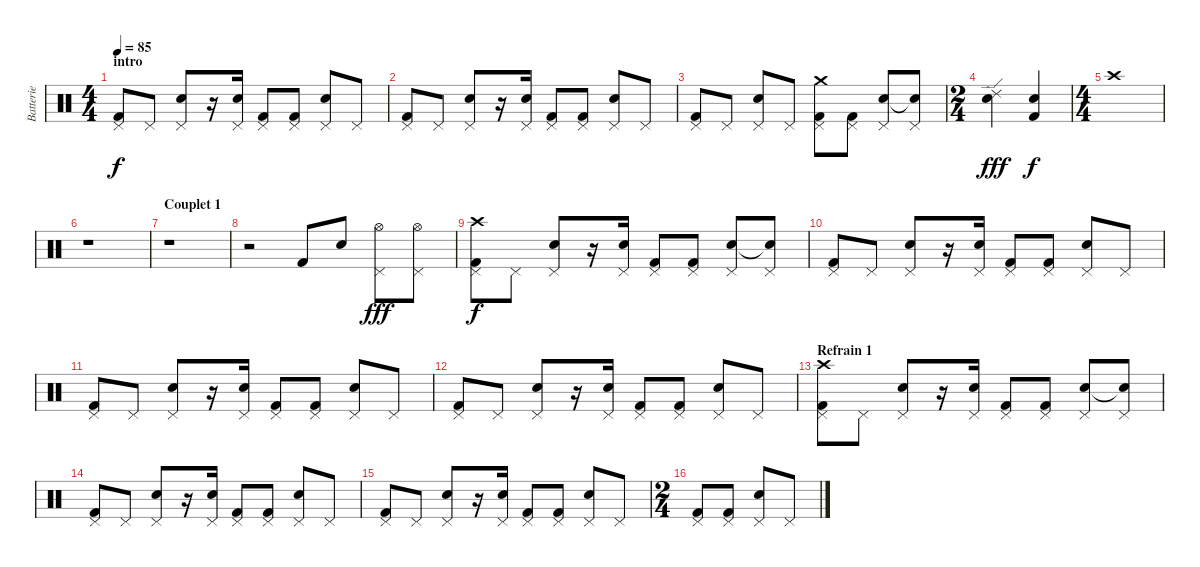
\track ("Batterie" "Batterie") {instrument percussion}
\staff {score}
\articulation defaults
\ts (4 4)
\section ("" "intro")
\tempo 85
\clef neutral
\ks c
("Pedal Hi-Hat (hit)" "Kick (hit) 2").8{dy f} "Pedal Hi-Hat (hit)".8 ("Pedal Hi-Hat (hit)" "Electric Snare (hit)").8 r.16 ("Pedal Hi-Hat (hit)" "Electric Snare (hit)").16 ("Pedal Hi-Hat (hit)" "Kick (hit) 2").8 ("Pedal Hi-Hat (hit)" "Kick (hit) 2").8 ("Pedal Hi-Hat (hit)" "Electric Snare (hit)").8 "Pedal Hi-Hat (hit)".8 |
("Pedal Hi-Hat (hit)" "Kick (hit) 2").8 "Pedal Hi-Hat (hit)".8 ("Pedal Hi-Hat (hit)" "Electric Snare (hit)").8 r.16 ("Pedal Hi-Hat (hit)" "Electric Snare (hit)").16 ("Pedal Hi-Hat (hit)" "Kick (hit) 2").8 ("Pedal Hi-Hat (hit)" "Kick (hit) 2").8 ("Pedal Hi-Hat (hit)" "Electric Snare (hit)").8 "Pedal Hi-Hat (hit)".8 |
("Pedal Hi-Hat (hit)" "Kick (hit) 2").8 "Pedal Hi-Hat (hit)".8 ("Pedal Hi-Hat (hit)" "Electric Snare (hit)").8 "Pedal Hi-Hat (hit)".8 ("Pedal Hi-Hat (hit)" "Crash medium (hit)" "Kick (hit) 2").8 ("Pedal Hi-Hat (hit)" "Kick (hit) 2").8 ("Pedal Hi-Hat (hit)" "Electric Snare (hit)").8 ("Pedal Hi-Hat (hit)" "Snare (hit)"{t}).8 |
\ts (2 4)
("Ride (edge) 2" "Electric Snare (hit)").4{dy fff} ("Kick (hit) 2" "Electric Snare (hit)").4{dy f} |
\ts (4 4)
"Crash high (hit)".1 |
r.1 |
\section ("" "Couplet 1")
r.1 |
r.2 "Kick (hit) 2".8 "Electric Snare (hit)".8 ("Hi-Hat (open)" "Pedal Hi-Hat (hit)").8{dy fff} ("Hi-Hat (open)" "Pedal Hi-Hat (hit)").8 |
("Pedal Hi-Hat (hit)" "Crash high (hit)" "Kick (hit) 2").8{dy f} "Pedal Hi-Hat (hit)".8 ("Pedal Hi-Hat (hit)" "Electric Snare (hit)").8 r.16 ("Pedal Hi-Hat (hit)" "Electric Snare (hit)").16 ("Pedal Hi-Hat (hit)" "Kick (hit) 2").8 ("Pedal Hi-Hat (hit)" "Kick (hit) 2").8 ("Pedal Hi-Hat (hit)" "Electric Snare (hit)").8 ("Pedal Hi-Hat (hit)" "Snare (hit)"{t}).8 |
("Pedal Hi-Hat (hit)" "Kick (hit) 2").8 "Pedal Hi-Hat (hit)".8 ("Pedal Hi-Hat (hit)" "Electric Snare (hit)").8 r.16 ("Pedal Hi-Hat (hit)" "Electric Snare (hit)").16 ("Pedal Hi-Hat (hit)" "Kick (hit) 2").8 ("Pedal Hi-Hat (hit)" "Kick (hit) 2").8 ("Pedal Hi-Hat (hit)" "Electric Snare (hit)").8 "Pedal Hi-Hat (hit)".8 |
("Pedal Hi-Hat (hit)" "Kick (hit) 2").8 "Pedal Hi-Hat (hit)".8 ("Pedal Hi-Hat (hit)" "Electric Snare (hit)").8 r.16 ("Pedal Hi-Hat (hit)" "Electric Snare (hit)").16 ("Pedal Hi-Hat (hit)" "Kick (hit) 2").8 ("Pedal Hi-Hat (hit)" "Kick (hit) 2").8 ("Pedal Hi-Hat (hit)" "Electric Snare (hit)").8 "Pedal Hi-Hat (hit)".8 |
("Pedal Hi-Hat (hit)" "Kick (hit) 2").8 "Pedal Hi-Hat (hit)".8 ("Pedal Hi-Hat (hit)" "Electric Snare (hit)").8 r.16 ("Pedal Hi-Hat (hit)" "Electric Snare (hit)").16 ("Pedal Hi-Hat (hit)" "Kick (hit) 2").8 ("Pedal Hi-Hat (hit)" "Kick (hit) 2").8 ("Pedal Hi-Hat (hit)" "Electric Snare (hit)").8 "Pedal Hi-Hat (hit)".8 |
\section ("" "Refrain 1")
("Pedal Hi-Hat (hit)" "Crash high (hit)" "Kick (hit) 2").8 "Pedal Hi-Hat (hit)".8 ("Pedal Hi-Hat (hit)" "Electric Snare (hit)").8 r.16 ("Pedal Hi-Hat (hit)" "Electric Snare (hit)").16 ("Pedal Hi-Hat (hit)" "Kick (hit) 2").8 ("Pedal Hi-Hat (hit)" "Kick (hit) 2").8 ("Pedal Hi-Hat (hit)" "Electric Snare (hit)").8 ("Pedal Hi-Hat (hit)" "Snare (hit)"{t}).8 |
("Pedal Hi-Hat (hit)" "Kick (hit) 2").8 "Pedal Hi-Hat (hit)".8 ("Pedal Hi-Hat (hit)" "Electric Snare (hit)").8 r.16 ("Pedal Hi-Hat (hit)" "Electric Snare (hit)").16 ("Pedal Hi-Hat (hit)" "Kick (hit) 2").8 ("Pedal Hi-Hat (hit)" "Kick (hit) 2").8 ("Pedal Hi-Hat (hit)" "Electric Snare (hit)").8 "Pedal Hi-Hat (hit)".8 |
("Pedal Hi-Hat (hit)" "Kick (hit) 2").8 "Pedal Hi-Hat (hit)".8 ("Pedal Hi-Hat (hit)" "Electric Snare (hit)").8 r.16 ("Pedal Hi-Hat (hit)" "Electric Snare (hit)").16 ("Pedal Hi-Hat (hit)" "Kick (hit) 2").8 ("Pedal Hi-Hat (hit)" "Kick (hit) 2").8 ("Pedal Hi-Hat (hit)" "Electric Snare (hit)").8 "Pedal Hi-Hat (hit)".8 |
\ts (2 4)
("Pedal Hi-Hat (hit)" "Kick (hit) 2").8 ("Pedal Hi-Hat (hit)" "Kick (hit) 2").8 ("Pedal Hi-Hat (hit)" "Electric Snare (hit)").8 "Pedal Hi-Hat (hit)".8
